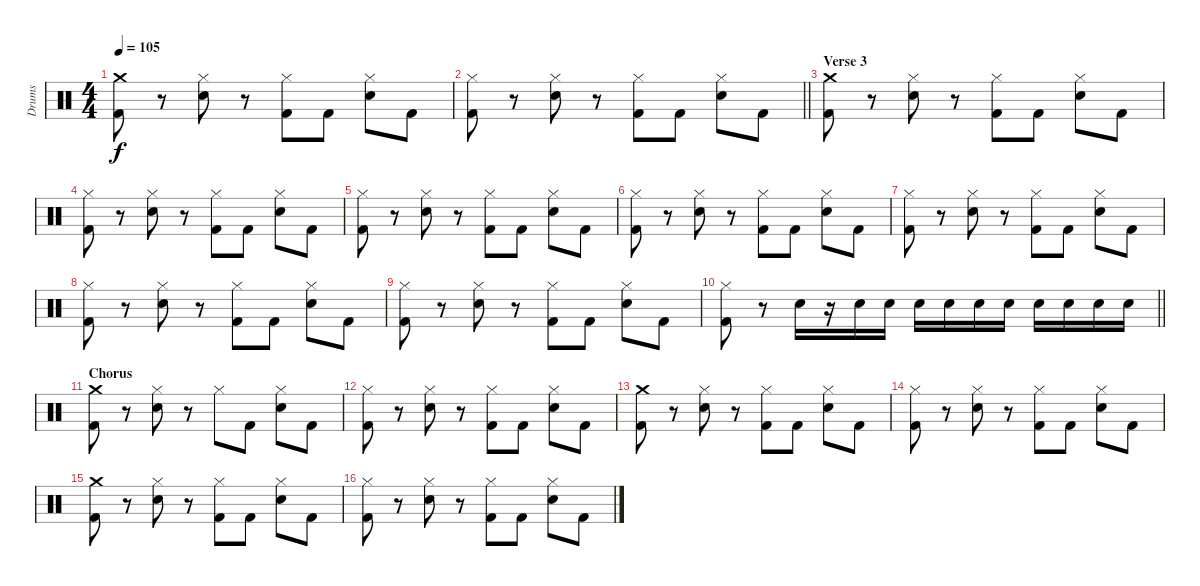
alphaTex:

\track ("Drums" "Drums") {instrument percussion}
\staff {score}
\articulation defaults
\ts (4 4)
\tempo 105
\clef neutral
\ks c
("Crash medium (hit)" "Kick (hit) 2").8{dy f} r.8 ("Hi-Hat (closed)" "Snare (hit) 2").8 r.8 ("Hi-Hat (closed)" "Kick (hit) 2").8 "Kick (hit) 2".8 ("Hi-Hat (closed)" "Snare (hit) 2").8 "Kick (hit) 2".8 |
\barLineRight lightlight
("Hi-Hat (closed)" "Kick (hit) 2").8 r.8 ("Hi-Hat (closed)" "Snare (hit) 2").8 r.8 ("Hi-Hat (closed)" "Kick (hit) 2").8 "Kick (hit) 2".8 ("Hi-Hat (closed)" "Snare (hit) 2").8 "Kick (hit) 2".8 |
\section ("" "Verse 3")
("Crash medium (hit)" "Kick (hit) 2").8 r.8 ("Hi-Hat (closed)" "Snare (hit) 2").8 r.8 ("Hi-Hat (closed)" "Kick (hit) 2").8 "Kick (hit) 2".8 ("Hi-Hat (closed)" "Snare (hit) 2").8 "Kick (hit) 2".8 |
("Hi-Hat (closed)" "Kick (hit) 2").8 r.8 ("Hi-Hat (closed)" "Snare (hit) 2").8 r.8 ("Hi-Hat (closed)" "Kick (hit) 2").8 "Kick (hit) 2".8 ("Hi-Hat (closed)" "Snare (hit) 2").8 "Kick (hit) 2".8 |
("Hi-Hat (closed)" "Kick (hit) 2").8 r.8 ("Hi-Hat (closed)" "Snare (hit) 2").8 r.8 ("Hi-Hat (closed)" "Kick (hit) 2").8 "Kick (hit) 2".8 ("Hi-Hat (closed)" "Snare (hit) 2").8 "Kick (hit) 2".8 |
("Hi-Hat (closed)" "Kick (hit) 2").8 r.8 ("Hi-Hat (closed)" "Snare (hit) 2").8 r.8 ("Hi-Hat (closed)" "Kick (hit) 2").8 "Kick (hit) 2".8 ("Hi-Hat (closed)" "Snare (hit) 2").8 "Kick (hit) 2".8 |
("Hi-Hat (closed)" "Kick (hit) 2").8 r.8 ("Hi-Hat (closed)" "Snare (hit) 2").8 r.8 ("Hi-Hat (closed)" "Kick (hit) 2").8 "Kick (hit) 2".8 ("Hi-Hat (closed)" "Snare (hit) 2").8 "Kick (hit) 2".8 |
("Hi-Hat (closed)" "Kick (hit) 2").8 r.8 ("Hi-Hat (closed)" "Snare (hit) 2").8 r.8 ("Hi-Hat (closed)" "Kick (hit) 2").8 "Kick (hit) 2".8 ("Hi-Hat (closed)" "Snare (hit) 2").8 "Kick (hit) 2".8 |
("Hi-Hat (closed)" "Kick (hit) 2").8 r.8 ("Hi-Hat (closed)" "Snare (hit) 2").8 r.8 ("Hi-Hat (closed)" "Kick (hit) 2").8 "Kick (hit) 2".8 ("Hi-Hat (closed)" "Snare (hit) 2").8 "Kick (hit) 2".8 |
\barLineRight lightlight
("Hi-Hat (closed)" "Kick (hit) 2").8 r.8 "Snare (hit) 2".16 r.16 "Snare (hit) 2".16 "Snare (hit) 2".16 "Snare (hit) 2".16 "Snare (hit) 2".16 "Snare (hit) 2".16 "Snare (hit) 2".16 "Snare (hit) 2".16 "Snare (hit) 2".16 "Snare (hit) 2".16 "Snare (hit) 2".16 |
\section ("" "Chorus")
("Crash medium (hit)" "Kick (hit) 2").8 r.8 ("Hi-Hat (closed)" "Snare (hit) 2").8 r.8 "Hi-Hat (closed)".8 "Kick (hit) 2".8 ("Hi-Hat (closed)" "Snare (hit) 2").8 "Kick (hit) 2".8 |
("Hi-Hat (closed)" "Kick (hit) 2").8 r.8 ("Hi-Hat (closed)" "Snare (hit) 2").8 r.8 ("Hi-Hat (closed)" "Kick (hit) 2").8 "Kick (hit) 2".8 ("Hi-Hat (closed)" "Snare (hit) 2").8 "Kick (hit) 2".8 |
("Crash medium (hit)" "Kick (hit) 2").8 r.8 ("Hi-Hat (closed)" "Snare (hit) 2").8 r.8 ("Hi-Hat (closed)" "Kick (hit) 2").8 "Kick (hit) 2".8 ("Hi-Hat (closed)" "Snare (hit) 2").8 "Kick (hit) 2".8 |
("Hi-Hat (closed)" "Kick (hit) 2").8 r.8 ("Hi-Hat (closed)" "Snare (hit) 2").8 r.8 ("Hi-Hat (closed)" "Kick (hit) 2").8 "Kick (hit) 2".8 ("Hi-Hat (closed)" "Snare (hit) 2").8 "Kick (hit) 2".8 |
("Crash medium (hit)" "Kick (hit) 2").8 r.8 ("Hi-Hat (closed)" "Snare (hit) 2").8 r.8 ("Hi-Hat (closed)" "Kick (hit) 2").8 "Kick (hit) 2".8 ("Hi-Hat (closed)" "Snare (hit) 2").8 "Kick (hit) 2".8 |
("Hi-Hat (closed)" "Kick (hit) 2").8 r.8 ("Hi-Hat (closed)" "Snare (hit) 2").8 r.8 ("Hi-Hat (closed)" "Kick (hit) 2").8 "Kick (hit) 2".8 ("Hi-Hat (closed)" "Snare (hit) 2").8 "Kick (hit) 2".8
